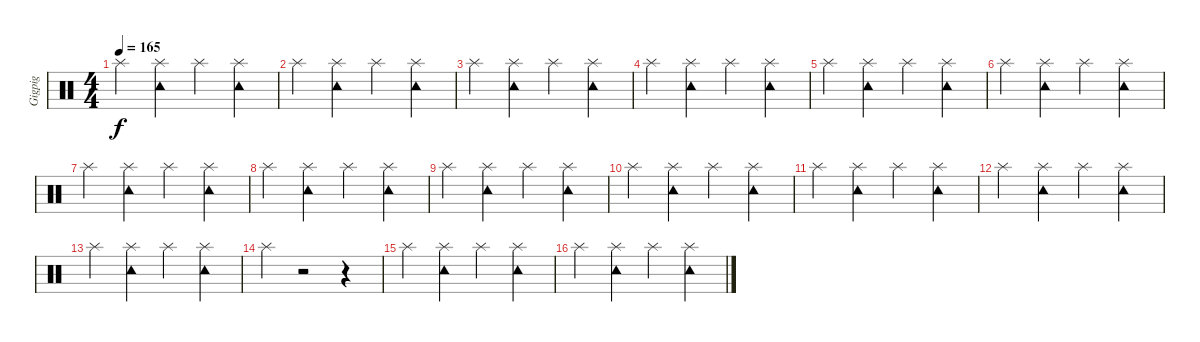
\track ("Gigpig" "Gigpig") {instrument percussion}
\staff {score}
\articulation defaults
\ts (4 4)
\tempo 165
\clef neutral
\ks c "Splash (hit)".4{dy f}
("Splash (hit)" "Tambourine (hit)").4 "Splash (hit)".4 ("Splash (hit)" "Tambourine (hit)").4 |
"Splash (hit)".4 ("Splash (hit)" "Tambourine (hit)").4 "Splash (hit)".4 ("Splash (hit)" "Tambourine (hit)").4 |
"Splash (hit)".4 ("Splash (hit)" "Tambourine (hit)").4 "Splash (hit)".4 ("Splash (hit)" "Tambourine (hit)").4 |
"Splash (hit)".4 ("Splash (hit)" "Tambourine (hit)").4 "Splash (hit)".4 ("Splash (hit)" "Tambourine (hit)").4 |
"Splash (hit)".4 ("Splash (hit)" "Tambourine (hit)").4 "Splash (hit)".4 ("Splash (hit)" "Tambourine (hit)").4 |
"Splash (hit)".4 ("Splash (hit)" "Tambourine (hit)").4 "Splash (hit)".4 ("Splash (hit)" "Tambourine (hit)").4 |
"Splash (hit)".4 ("Splash (hit)" "Tambourine (hit)").4 "Splash (hit)".4 ("Splash (hit)" "Tambourine (hit)").4 |
"Splash (hit)".4 ("Splash (hit)" "Tambourine (hit)").4 "Splash (hit)".4 ("Splash (hit)" "Tambourine (hit)").4 |
"Splash (hit)".4 ("Splash (hit)" "Tambourine (hit)").4 "Splash (hit)".4 ("Splash (hit)" "Tambourine (hit)").4 |
"Splash (hit)".4 ("Splash (hit)" "Tambourine (hit)").4 "Splash (hit)".4 ("Splash (hit)" "Tambourine (hit)").4 |
"Splash (hit)".4 ("Splash (hit)" "Tambourine (hit)").4 "Splash (hit)".4 ("Splash (hit)" "Tambourine (hit)").4 |
"Splash (hit)".4 ("Splash (hit)" "Tambourine (hit)").4 "Splash (hit)".4 ("Splash (hit)" "Tambourine (hit)").4 |
"Splash (hit)".4 ("Splash (hit)" "Tambourine (hit)").4 "Splash (hit)".4 ("Splash (hit)" "Tambourine (hit)").4 |
"Splash (hit)".4 r.2 r.4 |
"Splash (hit)".4 ("Splash (hit)" "Tambourine (hit)").4 "Splash (hit)".4 ("Splash (hit)" "Tambourine (hit)").4 |
"Splash (hit)".4 ("Splash (hit)" "Tambourine (hit)").4 "Splash (hit)".4 ("Splash (hit)" "Tambourine (hit)").4
